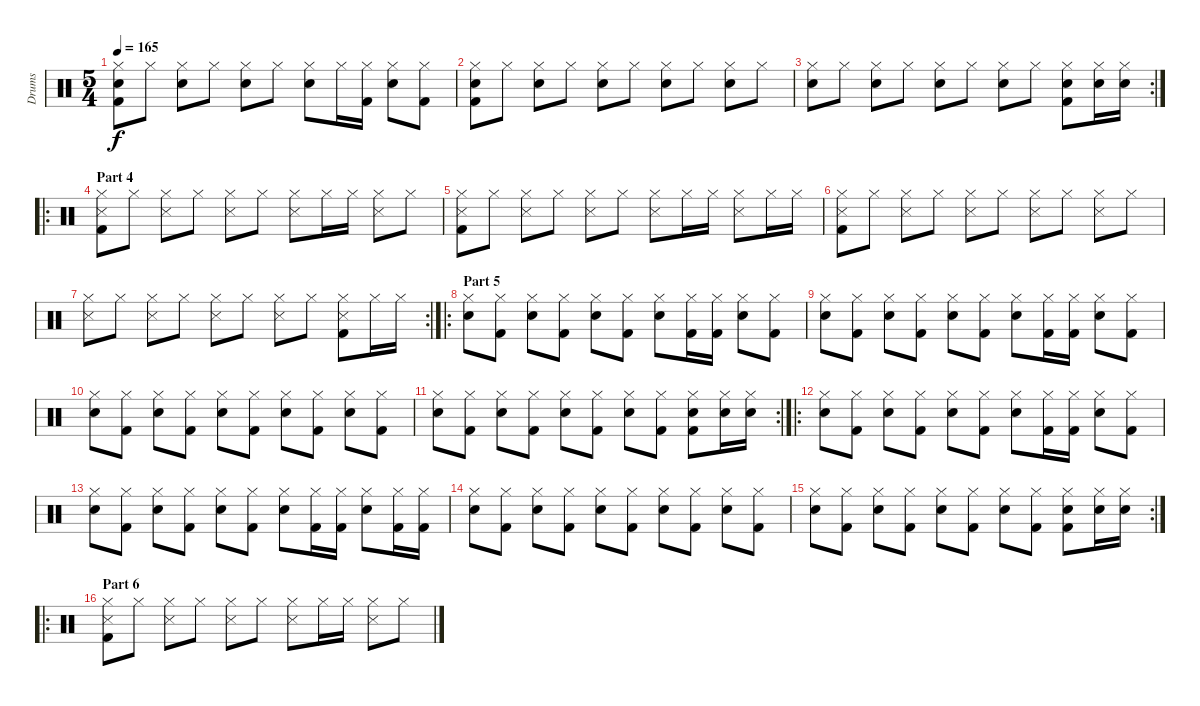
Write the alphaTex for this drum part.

\track ("Drums" "Drums") {instrument percussion}
\staff {score}
\articulation defaults
\ts (5 4)
\tempo 165
\clef neutral
\ks c
("Hi-Hat (closed)" "Electric Snare (hit)" "Kick (hit) 2").8{dy f} "Hi-Hat (closed)".8 ("Hi-Hat (closed)" "Electric Snare (hit)").8 "Hi-Hat (closed)".8 ("Hi-Hat (closed)" "Electric Snare (hit)").8 "Hi-Hat (closed)".8 ("Hi-Hat (closed)" "Electric Snare (hit)").8 "Hi-Hat (closed)".16 ("Hi-Hat (closed)" "Kick (hit) 2").16 ("Hi-Hat (closed)" "Electric Snare (hit)").8 ("Hi-Hat (closed)" "Kick (hit) 2").8 |
("Hi-Hat (closed)" "Electric Snare (hit)" "Kick (hit) 2").8 "Hi-Hat (closed)".8 ("Hi-Hat (closed)" "Electric Snare (hit)").8 "Hi-Hat (closed)".8 ("Hi-Hat (closed)" "Electric Snare (hit)").8 "Hi-Hat (closed)".8 ("Hi-Hat (closed)" "Electric Snare (hit)").8 "Hi-Hat (closed)".8 ("Hi-Hat (closed)" "Electric Snare (hit)").8 "Hi-Hat (closed)".8 |
\rc 2
("Hi-Hat (closed)" "Electric Snare (hit)").8 "Hi-Hat (closed)".8 ("Hi-Hat (closed)" "Electric Snare (hit)").8 "Hi-Hat (closed)".8 ("Hi-Hat (closed)" "Electric Snare (hit)").8 "Hi-Hat (closed)".8 ("Hi-Hat (closed)" "Electric Snare (hit)").8 "Hi-Hat (closed)".8 ("Hi-Hat (closed)" "Electric Snare (hit)" "Kick (hit) 2").8 ("Hi-Hat (closed)" "Electric Snare (hit)").16 ("Hi-Hat (closed)" "Electric Snare (hit)").16 |
\ro
\section ("" "Part 4")
("Hi-Hat (closed)" "Snare (side stick) 3" "Kick (hit) 2").8 "Hi-Hat (closed)".8 ("Hi-Hat (closed)" "Snare (side stick) 3").8 "Hi-Hat (closed)".8 ("Hi-Hat (closed)" "Snare (side stick) 3").8 "Hi-Hat (closed)".8 ("Hi-Hat (closed)" "Snare (side stick) 3").8 "Hi-Hat (closed)".16 "Hi-Hat (closed)".16 ("Hi-Hat (closed)" "Snare (side stick) 3").8 "Hi-Hat (closed)".8 |
("Hi-Hat (closed)" "Snare (side stick) 3" "Kick (hit) 2").8 "Hi-Hat (closed)".8 ("Hi-Hat (closed)" "Snare (side stick) 3").8 "Hi-Hat (closed)".8 ("Hi-Hat (closed)" "Snare (side stick) 3").8 "Hi-Hat (closed)".8 ("Hi-Hat (closed)" "Snare (side stick) 3").8 "Hi-Hat (closed)".16 "Hi-Hat (closed)".16 ("Hi-Hat (closed)" "Snare (side stick) 3").8 "Hi-Hat (closed)".16 "Hi-Hat (closed)".16 |
("Hi-Hat (closed)" "Snare (side stick) 3" "Kick (hit) 2").8 "Hi-Hat (closed)".8 ("Hi-Hat (closed)" "Snare (side stick) 3").8 "Hi-Hat (closed)".8 ("Hi-Hat (closed)" "Snare (side stick) 3").8 "Hi-Hat (closed)".8 ("Hi-Hat (closed)" "Snare (side stick) 3").8 "Hi-Hat (closed)".8 ("Hi-Hat (closed)" "Snare (side stick) 3").8 "Hi-Hat (closed)".8 |
\rc 2
("Hi-Hat (closed)" "Snare (side stick) 3").8 "Hi-Hat (closed)".8 ("Hi-Hat (closed)" "Snare (side stick) 3").8 "Hi-Hat (closed)".8 ("Hi-Hat (closed)" "Snare (side stick) 3").8 "Hi-Hat (closed)".8 ("Hi-Hat (closed)" "Snare (side stick) 3").8 "Hi-Hat (closed)".8 ("Hi-Hat (closed)" "Snare (side stick) 3" "Kick (hit) 2").8 "Hi-Hat (closed)".16 "Hi-Hat (closed)".16 |
\ro
\section ("" "Part 5")
("Hi-Hat (closed)" "Electric Snare (hit)").8 ("Hi-Hat (closed)" "Kick (hit) 2").8 ("Hi-Hat (closed)" "Electric Snare (hit)").8 ("Hi-Hat (closed)" "Kick (hit) 2").8 ("Hi-Hat (closed)" "Electric Snare (hit)").8 ("Hi-Hat (closed)" "Kick (hit) 2").8 ("Hi-Hat (closed)" "Electric Snare (hit)").8 ("Hi-Hat (closed)" "Kick (hit) 2").16 ("Hi-Hat (closed)" "Kick (hit) 2").16 ("Hi-Hat (closed)" "Electric Snare (hit)").8 ("Hi-Hat (closed)" "Kick (hit) 2").8 |
("Hi-Hat (closed)" "Electric Snare (hit)").8 ("Hi-Hat (closed)" "Kick (hit) 2").8 ("Hi-Hat (closed)" "Electric Snare (hit)").8 ("Hi-Hat (closed)" "Kick (hit) 2").8 ("Hi-Hat (closed)" "Electric Snare (hit)").8 ("Hi-Hat (closed)" "Kick (hit) 2").8 ("Hi-Hat (closed)" "Electric Snare (hit)").8 ("Hi-Hat (closed)" "Kick (hit) 2").16 ("Hi-Hat (closed)" "Kick (hit) 2").16 ("Hi-Hat (closed)" "Electric Snare (hit)").8 ("Hi-Hat (closed)" "Kick (hit) 2").8 |
("Hi-Hat (closed)" "Electric Snare (hit)").8 ("Hi-Hat (closed)" "Kick (hit) 2").8 ("Hi-Hat (closed)" "Electric Snare (hit)").8 ("Hi-Hat (closed)" "Kick (hit) 2").8 ("Hi-Hat (closed)" "Electric Snare (hit)").8 ("Hi-Hat (closed)" "Kick (hit) 2").8 ("Hi-Hat (closed)" "Electric Snare (hit)").8 ("Hi-Hat (closed)" "Kick (hit) 2").8 ("Hi-Hat (closed)" "Electric Snare (hit)").8 ("Hi-Hat (closed)" "Kick (hit) 2").8 |
\rc 2
("Hi-Hat (closed)" "Electric Snare (hit)").8 ("Hi-Hat (closed)" "Kick (hit) 2").8 ("Hi-Hat (closed)" "Electric Snare (hit)").8 ("Hi-Hat (closed)" "Kick (hit) 2").8 ("Hi-Hat (closed)" "Electric Snare (hit)").8 ("Hi-Hat (closed)" "Kick (hit) 2").8 ("Hi-Hat (closed)" "Electric Snare (hit)").8 ("Hi-Hat (closed)" "Kick (hit) 2").8 ("Hi-Hat (closed)" "Electric Snare (hit)" "Kick (hit) 2").8 ("Hi-Hat (closed)" "Electric Snare (hit)").16 ("Hi-Hat (closed)" "Electric Snare (hit)").16 |
\ro
("Hi-Hat (closed)" "Electric Snare (hit)").8 ("Hi-Hat (closed)" "Kick (hit) 2").8 ("Hi-Hat (closed)" "Electric Snare (hit)").8 ("Hi-Hat (closed)" "Kick (hit) 2").8 ("Hi-Hat (closed)" "Electric Snare (hit)").8 ("Hi-Hat (closed)" "Kick (hit) 2").8 ("Hi-Hat (closed)" "Electric Snare (hit)").8 ("Hi-Hat (closed)" "Kick (hit) 2").16 ("Hi-Hat (closed)" "Kick (hit) 2").16 ("Hi-Hat (closed)" "Electric Snare (hit)").8 ("Hi-Hat (closed)" "Kick (hit) 2").8 |
("Hi-Hat (closed)" "Electric Snare (hit)").8 ("Hi-Hat (closed)" "Kick (hit) 2").8 ("Hi-Hat (closed)" "Electric Snare (hit)").8 ("Hi-Hat (closed)" "Kick (hit) 2").8 ("Hi-Hat (closed)" "Electric Snare (hit)").8 ("Hi-Hat (closed)" "Kick (hit) 2").8 ("Hi-Hat (closed)" "Electric Snare (hit)").8 ("Hi-Hat (closed)" "Kick (hit) 2").16 ("Hi-Hat (closed)" "Kick (hit) 2").16 ("Hi-Hat (closed)" "Electric Snare (hit)").8 ("Hi-Hat (closed)" "Kick (hit) 2").16 ("Hi-Hat (closed)" "Kick (hit) 2").16 |
("Hi-Hat (closed)" "Electric Snare (hit)").8 ("Hi-Hat (closed)" "Kick (hit) 2").8 ("Hi-Hat (closed)" "Electric Snare (hit)").8 ("Hi-Hat (closed)" "Kick (hit) 2").8 ("Hi-Hat (closed)" "Electric Snare (hit)").8 ("Hi-Hat (closed)" "Kick (hit) 2").8 ("Hi-Hat (closed)" "Electric Snare (hit)").8 ("Hi-Hat (closed)" "Kick (hit) 2").8 ("Hi-Hat (closed)" "Electric Snare (hit)").8 ("Hi-Hat (closed)" "Kick (hit) 2").8 |
\rc 2
("Hi-Hat (closed)" "Electric Snare (hit)").8 ("Hi-Hat (closed)" "Kick (hit) 2").8 ("Hi-Hat (closed)" "Electric Snare (hit)").8 ("Hi-Hat (closed)" "Kick (hit) 2").8 ("Hi-Hat (closed)" "Electric Snare (hit)").8 ("Hi-Hat (closed)" "Kick (hit) 2").8 ("Hi-Hat (closed)" "Electric Snare (hit)").8 ("Hi-Hat (closed)" "Kick (hit) 2").8 ("Hi-Hat (closed)" "Electric Snare (hit)" "Kick (hit) 2").8 ("Hi-Hat (closed)" "Electric Snare (hit)").16 ("Hi-Hat (closed)" "Electric Snare (hit)").16 |
\ro
\section ("" "Part 6")
("Hi-Hat (closed)" "Snare (side stick) 3" "Kick (hit) 2").8 "Hi-Hat (closed)".8 ("Hi-Hat (closed)" "Snare (side stick) 3").8 "Hi-Hat (closed)".8 ("Hi-Hat (closed)" "Snare (side stick) 3").8 "Hi-Hat (closed)".8 ("Hi-Hat (closed)" "Snare (side stick) 3").8 "Hi-Hat (closed)".16 "Hi-Hat (closed)".16 ("Hi-Hat (closed)" "Snare (side stick) 3").8 "Hi-Hat (closed)".8
